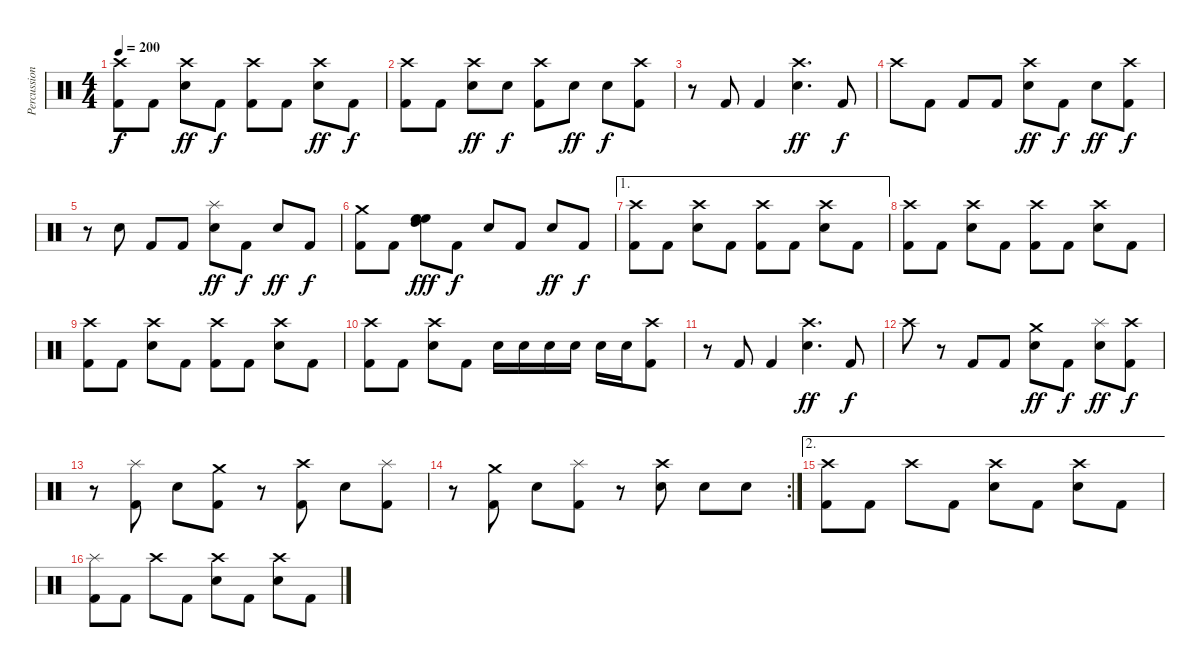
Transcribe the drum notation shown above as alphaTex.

\track ("Percussion" "Percussion") {instrument percussion}
\staff {score}
\articulation defaults
\ts (4 4)
\tempo 200
\clef neutral
\ks c
("Crash high (hit)" "Kick (hit) 2").8{dy f} "Kick (hit) 2".8 ("Crash high (hit)" "Snare (hit) 2").8{dy ff} "Kick (hit) 2".8{dy f} ("Crash high (hit)" "Kick (hit) 2").8 "Kick (hit) 2".8 ("Crash high (hit)" "Snare (hit) 2").8{dy ff} "Kick (hit) 2".8{dy f} |
("Crash high (hit)" "Kick (hit) 2").8 "Kick (hit) 2".8 ("Crash high (hit)" "Snare (hit) 2").8{dy ff} "Snare (hit) 2".8{dy f} ("Crash high (hit)" "Kick (hit) 2").8 "Snare (hit) 2".8{dy ff} "Snare (hit) 2".8{dy f} ("Crash high (hit)" "Kick (hit) 2").8 |
r.8 "Kick (hit) 2".8 "Kick (hit) 2".4 ("Crash high (hit)" "Snare (hit) 2").4{d dy ff} "Kick (hit) 2".8{dy f} |
"Crash high (hit)".8 "Kick (hit) 2".8 "Kick (hit) 2".8 "Kick (hit) 2".8 ("Crash high (hit)" "Snare (hit) 2").8{dy ff} "Kick (hit) 2".8{dy f} "Snare (hit) 2".8{dy ff} ("Crash high (hit)" "Kick (hit) 2").8{dy f} |
r.8 "Snare (hit) 2".8 "Kick (hit) 2".8 "Kick (hit) 2".8 ("Splash (hit)" "Snare (hit) 2").8{dy ff} "Kick (hit) 2".8{dy f} "Snare (hit) 2".8{dy ff} "Kick (hit) 2".8{dy f} |
("Crash medium (hit)" "Kick (hit) 2").8 "Kick (hit) 2".8 ("High Floor Tom (hit)" "High Floor Tom (hit)" "High Tom (hit)").8{dy fff} "Kick (hit) 2".8{dy f} "Snare (hit) 2".8 "Kick (hit) 2".8 "Snare (hit) 2".8{dy ff} "Kick (hit) 2".8{dy f} |
\ae 1
("Crash high (hit)" "Kick (hit) 2").8 "Kick (hit) 2".8 ("Crash high (hit)" "Snare (hit) 2").8 "Kick (hit) 2".8 ("Crash high (hit)" "Kick (hit) 2").8 "Kick (hit) 2".8 ("Crash high (hit)" "Snare (hit) 2").8 "Kick (hit) 2".8 |
("Crash high (hit)" "Kick (hit) 2").8 "Kick (hit) 2".8 ("Crash high (hit)" "Snare (hit) 2").8 "Kick (hit) 2".8 ("Crash high (hit)" "Kick (hit) 2").8 "Kick (hit) 2".8 ("Crash high (hit)" "Snare (hit) 2").8 "Kick (hit) 2".8 |
("Crash high (hit)" "Kick (hit) 2").8 "Kick (hit) 2".8 ("Crash high (hit)" "Snare (hit) 2").8 "Kick (hit) 2".8 ("Crash high (hit)" "Kick (hit) 2").8 "Kick (hit) 2".8 ("Crash high (hit)" "Snare (hit) 2").8 "Kick (hit) 2".8 |
("Crash high (hit)" "Kick (hit) 2").8 "Kick (hit) 2".8 ("Crash high (hit)" "Snare (hit) 2").8 "Kick (hit) 2".8 "Snare (hit) 2".16 "Snare (hit) 2".16 "Snare (hit) 2".16 "Snare (hit) 2".16 "Snare (hit) 2".16 "Snare (hit) 2".16 ("Crash high (hit)" "Kick (hit) 2").8 |
r.8 "Kick (hit) 2".8 "Kick (hit) 2".4 ("Crash high (hit)" "Snare (hit) 2").4{d dy ff} "Kick (hit) 2".8{dy f} |
"Crash high (hit)".8 r.8 "Kick (hit) 2".8 "Kick (hit) 2".8 ("Crash medium (hit)" "Snare (hit) 2").8{dy ff} "Kick (hit) 2".8{dy f} ("Splash (hit)" "Snare (hit) 2").8{dy ff} ("Crash high (hit)" "Kick (hit) 2").8{dy f} |
r.8 ("Splash (hit)" "Kick (hit) 2").8 "Snare (hit) 2".8 ("Crash medium (hit)" "Kick (hit) 2").8 r.8 ("Crash high (hit)" "Kick (hit) 2").8 "Snare (hit) 2".8 ("Splash (hit)" "Kick (hit) 2").8 |
\rc 2
r.8 ("Crash medium (hit)" "Kick (hit) 2").8 "Snare (hit) 2".8 ("Splash (hit)" "Kick (hit) 2").8 r.8 ("Crash high (hit)" "Snare (hit) 2").8 "Snare (hit) 2".8 "Snare (hit) 2".8 |
\ae 2
("Crash high (hit)" "Kick (hit) 2").8 "Kick (hit) 2".8 "Crash high (hit)".8 "Kick (hit) 2".8 ("Crash high (hit)" "Snare (hit) 2").8 "Kick (hit) 2".8 ("Crash high (hit)" "Snare (hit) 2").8 "Kick (hit) 2".8 |
("Splash (hit)" "Kick (hit) 2").8 "Kick (hit) 2".8 "Crash high (hit)".8 "Kick (hit) 2".8 ("Crash high (hit)" "Snare (hit) 2").8 "Kick (hit) 2".8 ("Crash high (hit)" "Snare (hit) 2").8 "Kick (hit) 2".8
